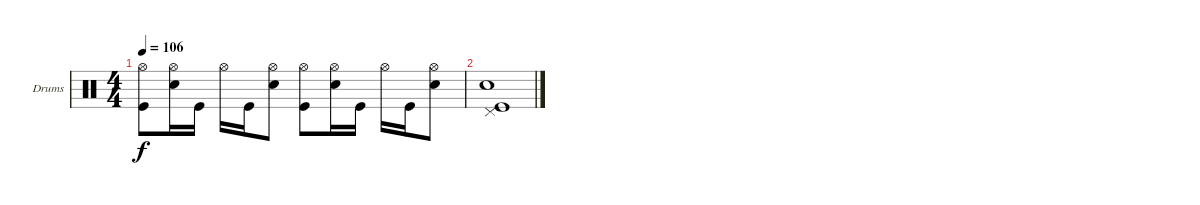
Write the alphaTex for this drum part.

\bracketExtendMode groupsimilarinstruments
\firstSystemTrackNameOrientation horizontal
\otherSystemsTrackNameOrientation horizontal
\track ("Fabrizio" "Drums") {instrument percussion}
\staff {score}
\articulation defaults
\ts (4 4)
\tempo 106
\clef neutral
\ks c
("Hi-Hat (open)" "Kick (hit)").8{dy f} ("Hi-Hat (open)" "Snare (hit) 2").16 "Kick (hit)".16 "Hi-Hat (open)".16 "Kick (hit)".16 ("Hi-Hat (open)" "Snare (hit) 2").8 ("Hi-Hat (open)" "Kick (hit)").8 ("Hi-Hat (open)" "Snare (hit) 2").16 "Kick (hit)".16 "Hi-Hat (open)".16 "Kick (hit)".16 ("Hi-Hat (open)" "Snare (hit) 2").8 |
("Pedal Hi-Hat (hit)" "Snare (hit) 2" "Kick (hit)").1
